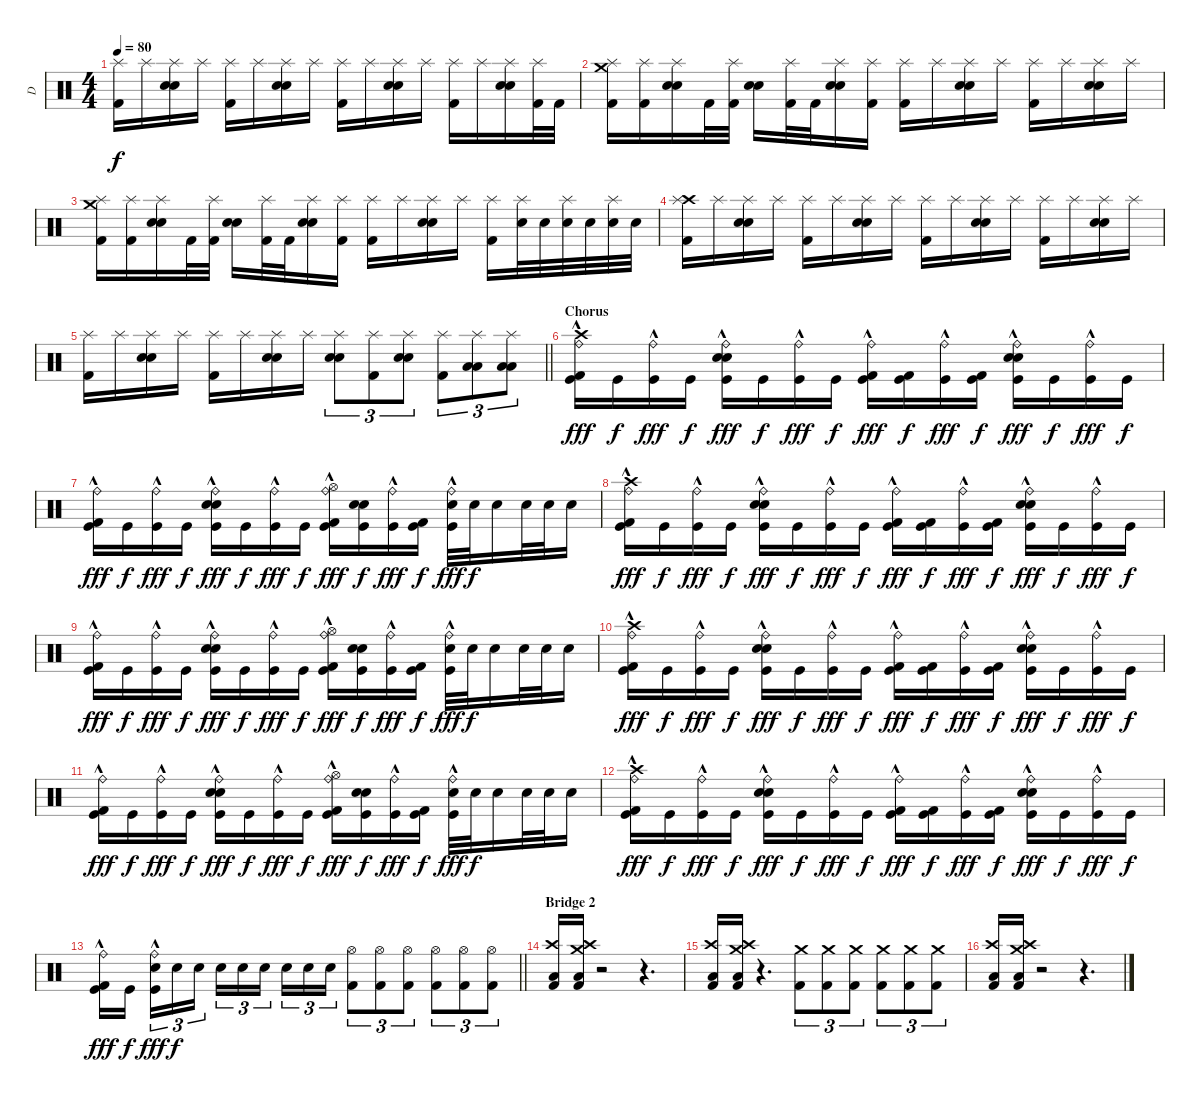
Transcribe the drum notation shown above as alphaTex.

\track ("D" "D") {instrument percussion}
\staff {score}
\articulation defaults
\ts (4 4)
\tempo 80
\clef neutral
\ks c
("Kick (hit) 2" "Splash (hit)").16{dy f} "Splash (hit)".16 ("Electric Snare (hit)" "Electric Snare (hit)" "Splash (hit)").16 "Splash (hit)".16 ("Kick (hit) 2" "Splash (hit)").16 "Splash (hit)".16 ("Electric Snare (hit)" "Electric Snare (hit)" "Splash (hit)").16 "Splash (hit)".16 ("Kick (hit) 2" "Splash (hit)").16 "Splash (hit)".16 ("Electric Snare (hit)" "Electric Snare (hit)" "Splash (hit)").16 "Splash (hit)".16 ("Kick (hit) 2" "Splash (hit)").16 "Splash (hit)".16 ("Electric Snare (hit)" "Electric Snare (hit)" "Splash (hit)").16 ("Kick (hit) 2" "Splash (hit)").32 "Kick (hit) 2".32 |
("Crash medium (hit)" "Kick (hit) 2" "Splash (hit)").16 ("Kick (hit) 2" "Splash (hit)").16 ("Electric Snare (hit)" "Electric Snare (hit)" "Splash (hit)").16 "Kick (hit) 2".32 ("Kick (hit) 2" "Splash (hit)").32 ("Electric Snare (hit)" "Electric Snare (hit)").16 ("Kick (hit) 2" "Splash (hit)").32 "Kick (hit) 2".32 ("Electric Snare (hit)" "Electric Snare (hit)" "Splash (hit)").16 ("Kick (hit) 2" "Splash (hit)").16 ("Kick (hit) 2" "Splash (hit)").16 "Splash (hit)".16 ("Electric Snare (hit)" "Electric Snare (hit)" "Splash (hit)").16 "Splash (hit)".16 ("Kick (hit) 2" "Splash (hit)").16 "Splash (hit)".16 ("Electric Snare (hit)" "Electric Snare (hit)" "Splash (hit)").16 "Splash (hit)".16 |
("Crash medium (hit)" "Kick (hit) 2" "Splash (hit)").16 ("Kick (hit) 2" "Splash (hit)").16 ("Electric Snare (hit)" "Electric Snare (hit)" "Splash (hit)").16 "Kick (hit) 2".32 ("Kick (hit) 2" "Splash (hit)").32 ("Electric Snare (hit)" "Electric Snare (hit)").16 ("Kick (hit) 2" "Splash (hit)").32 "Kick (hit) 2".32 ("Electric Snare (hit)" "Electric Snare (hit)" "Splash (hit)").16 ("Kick (hit) 2" "Splash (hit)").16 ("Kick (hit) 2" "Splash (hit)").16 "Splash (hit)".16 ("Electric Snare (hit)" "Electric Snare (hit)" "Splash (hit)").16 "Splash (hit)".16 ("Kick (hit) 2" "Splash (hit)").16 ("Electric Snare (hit)" "Splash (hit)").32 "Electric Snare (hit)".32 ("Electric Snare (hit)" "Splash (hit)").32 "Electric Snare (hit)".32 ("Electric Snare (hit)" "Splash (hit)").32 "Electric Snare (hit)".32 |
("Crash high (hit)" "Kick (hit) 2" "Splash (hit)").16 "Splash (hit)".16 ("Electric Snare (hit)" "Electric Snare (hit)" "Splash (hit)").16 "Splash (hit)".16 ("Kick (hit) 2" "Splash (hit)").16 "Splash (hit)".16 ("Electric Snare (hit)" "Electric Snare (hit)" "Splash (hit)").16 "Splash (hit)".16 ("Kick (hit) 2" "Splash (hit)").16 "Splash (hit)".16 ("Electric Snare (hit)" "Electric Snare (hit)" "Splash (hit)").16 "Splash (hit)".16 ("Kick (hit) 2" "Splash (hit)").16 "Splash (hit)".16 ("Electric Snare (hit)" "Electric Snare (hit)" "Splash (hit)").16 "Splash (hit)".16 |
\barLineRight lightlight
("Kick (hit) 2" "Splash (hit)").16 "Splash (hit)".16 ("Electric Snare (hit)" "Electric Snare (hit)" "Splash (hit)").16 "Splash (hit)".16 ("Kick (hit) 2" "Splash (hit)").16 "Splash (hit)".16 ("Electric Snare (hit)" "Electric Snare (hit)" "Splash (hit)").16 "Splash (hit)".16 ("Electric Snare (hit)" "Electric Snare (hit)" "Splash (hit)").8{tu (3 2)} ("Kick (hit) 2" "Splash (hit)").8{tu (3 2)} ("Electric Snare (hit)" "Electric Snare (hit)" "Splash (hit)").8{tu (3 2)} ("Kick (hit) 2" "Splash (hit)").8{tu (3 2)} ("Low Tom (hit)" "Low Floor Tom (hit)" "Splash (hit)").8{tu (3 2)} ("Low Tom (hit)" "Low Floor Tom (hit)" "Splash (hit)").8{tu (3 2)} |
\section ("" "Chorus")
("Crash high (hit)" "Kick (hit) 2" "Kick (hit)" "Ride (bell)"{hac}).16{dy fff} "Kick (hit)".16{dy f} ("Kick (hit)" "Ride (bell)"{hac}).16{dy fff} "Kick (hit)".16{dy f} ("Electric Snare (hit)" "Electric Snare (hit)" "Kick (hit)" "Ride (bell)"{hac}).16{dy fff} "Kick (hit)".16{dy f} ("Kick (hit)" "Ride (bell)"{hac}).16{dy fff} "Kick (hit)".16{dy f} ("Kick (hit) 2" "Kick (hit)" "Ride (bell)"{hac}).16{dy fff} ("Kick (hit) 2" "Kick (hit)").16{dy f} ("Kick (hit)" "Ride (bell)"{hac}).16{dy fff} ("Kick (hit) 2" "Kick (hit)").16{dy f} ("Electric Snare (hit)" "Electric Snare (hit)" "Kick (hit)" "Ride (bell)"{hac}).16{dy fff} "Kick (hit)".16{dy f} ("Kick (hit)" "Ride (bell)"{hac}).16{dy fff} "Kick (hit)".16{dy f} |
("Kick (hit) 2" "Kick (hit)" "Ride (bell)"{hac}).16{dy fff} "Kick (hit)".16{dy f} ("Kick (hit)" "Ride (bell)"{hac}).16{dy fff} "Kick (hit)".16{dy f} ("Electric Snare (hit)" "Electric Snare (hit)" "Kick (hit)" "Ride (bell)"{hac}).16{dy fff} "Kick (hit)".16{dy f} ("Kick (hit)" "Ride (bell)"{hac}).16{dy fff} "Kick (hit)".16{dy f} ("Hi-Hat (open)" "Kick (hit) 2" "Kick (hit)" "Ride (bell)"{hac}).16{dy fff} ("Electric Snare (hit)" "Electric Snare (hit)" "Kick (hit)").16{dy f} ("Kick (hit)" "Ride (bell)"{hac}).16{dy fff} ("Kick (hit) 2" "Kick (hit)").16{dy f} ("Electric Snare (hit)" "Kick (hit)" "Ride (bell)"{hac}).32{dy fff} "Electric Snare (hit)".32{dy f} "Electric Snare (hit)".16 "Electric Snare (hit)".32 "Electric Snare (hit)".32 "Electric Snare (hit)".16 |
("Crash high (hit)" "Kick (hit) 2" "Kick (hit)" "Ride (bell)"{hac}).16{dy fff} "Kick (hit)".16{dy f} ("Kick (hit)" "Ride (bell)"{hac}).16{dy fff} "Kick (hit)".16{dy f} ("Electric Snare (hit)" "Electric Snare (hit)" "Kick (hit)" "Ride (bell)"{hac}).16{dy fff} "Kick (hit)".16{dy f} ("Kick (hit)" "Ride (bell)"{hac}).16{dy fff} "Kick (hit)".16{dy f} ("Kick (hit) 2" "Kick (hit)" "Ride (bell)"{hac}).16{dy fff} ("Kick (hit) 2" "Kick (hit)").16{dy f} ("Kick (hit)" "Ride (bell)"{hac}).16{dy fff} ("Kick (hit) 2" "Kick (hit)").16{dy f} ("Electric Snare (hit)" "Electric Snare (hit)" "Kick (hit)" "Ride (bell)"{hac}).16{dy fff} "Kick (hit)".16{dy f} ("Kick (hit)" "Ride (bell)"{hac}).16{dy fff} "Kick (hit)".16{dy f} |
("Kick (hit) 2" "Kick (hit)" "Ride (bell)"{hac}).16{dy fff} "Kick (hit)".16{dy f} ("Kick (hit)" "Ride (bell)"{hac}).16{dy fff} "Kick (hit)".16{dy f} ("Electric Snare (hit)" "Electric Snare (hit)" "Kick (hit)" "Ride (bell)"{hac}).16{dy fff} "Kick (hit)".16{dy f} ("Kick (hit)" "Ride (bell)"{hac}).16{dy fff} "Kick (hit)".16{dy f} ("Hi-Hat (open)" "Kick (hit) 2" "Kick (hit)" "Ride (bell)"{hac}).16{dy fff} ("Electric Snare (hit)" "Electric Snare (hit)" "Kick (hit)").16{dy f} ("Kick (hit)" "Ride (bell)"{hac}).16{dy fff} ("Kick (hit) 2" "Kick (hit)").16{dy f} ("Electric Snare (hit)" "Kick (hit)" "Ride (bell)"{hac}).32{dy fff} "Electric Snare (hit)".32{dy f} "Electric Snare (hit)".16 "Electric Snare (hit)".32 "Electric Snare (hit)".32 "Electric Snare (hit)".16 |
("Crash high (hit)" "Kick (hit) 2" "Kick (hit)" "Ride (bell)"{hac}).16{dy fff} "Kick (hit)".16{dy f} ("Kick (hit)" "Ride (bell)"{hac}).16{dy fff} "Kick (hit)".16{dy f} ("Electric Snare (hit)" "Electric Snare (hit)" "Kick (hit)" "Ride (bell)"{hac}).16{dy fff} "Kick (hit)".16{dy f} ("Kick (hit)" "Ride (bell)"{hac}).16{dy fff} "Kick (hit)".16{dy f} ("Kick (hit) 2" "Kick (hit)" "Ride (bell)"{hac}).16{dy fff} ("Kick (hit) 2" "Kick (hit)").16{dy f} ("Kick (hit)" "Ride (bell)"{hac}).16{dy fff} ("Kick (hit) 2" "Kick (hit)").16{dy f} ("Electric Snare (hit)" "Electric Snare (hit)" "Kick (hit)" "Ride (bell)"{hac}).16{dy fff} "Kick (hit)".16{dy f} ("Kick (hit)" "Ride (bell)"{hac}).16{dy fff} "Kick (hit)".16{dy f} |
("Kick (hit) 2" "Kick (hit)" "Ride (bell)"{hac}).16{dy fff} "Kick (hit)".16{dy f} ("Kick (hit)" "Ride (bell)"{hac}).16{dy fff} "Kick (hit)".16{dy f} ("Electric Snare (hit)" "Electric Snare (hit)" "Kick (hit)" "Ride (bell)"{hac}).16{dy fff} "Kick (hit)".16{dy f} ("Kick (hit)" "Ride (bell)"{hac}).16{dy fff} "Kick (hit)".16{dy f} ("Hi-Hat (open)" "Kick (hit) 2" "Kick (hit)" "Ride (bell)"{hac}).16{dy fff} ("Electric Snare (hit)" "Electric Snare (hit)" "Kick (hit)").16{dy f} ("Kick (hit)" "Ride (bell)"{hac}).16{dy fff} ("Kick (hit) 2" "Kick (hit)").16{dy f} ("Electric Snare (hit)" "Kick (hit)" "Ride (bell)"{hac}).32{dy fff} "Electric Snare (hit)".32{dy f} "Electric Snare (hit)".16 "Electric Snare (hit)".32 "Electric Snare (hit)".32 "Electric Snare (hit)".16 |
("Crash high (hit)" "Kick (hit) 2" "Kick (hit)" "Ride (bell)"{hac}).16{dy fff} "Kick (hit)".16{dy f} ("Kick (hit)" "Ride (bell)"{hac}).16{dy fff} "Kick (hit)".16{dy f} ("Electric Snare (hit)" "Electric Snare (hit)" "Kick (hit)" "Ride (bell)"{hac}).16{dy fff} "Kick (hit)".16{dy f} ("Kick (hit)" "Ride (bell)"{hac}).16{dy fff} "Kick (hit)".16{dy f} ("Kick (hit) 2" "Kick (hit)" "Ride (bell)"{hac}).16{dy fff} ("Kick (hit) 2" "Kick (hit)").16{dy f} ("Kick (hit)" "Ride (bell)"{hac}).16{dy fff} ("Kick (hit) 2" "Kick (hit)").16{dy f} ("Electric Snare (hit)" "Electric Snare (hit)" "Kick (hit)" "Ride (bell)"{hac}).16{dy fff} "Kick (hit)".16{dy f} ("Kick (hit)" "Ride (bell)"{hac}).16{dy fff} "Kick (hit)".16{dy f} |
\barLineRight lightlight
("Kick (hit) 2" "Kick (hit)" "Ride (bell)"{hac}).16{dy fff} "Kick (hit)".16{dy f beam splitsecondary} ("Electric Snare (hit)" "Kick (hit)" "Ride (bell)"{hac}).16{tu (3 2) dy fff} "Electric Snare (hit)".16{tu (3 2) dy f} "Electric Snare (hit)".16{tu (3 2)} "Electric Snare (hit)".16{tu (3 2)} "Electric Snare (hit)".16{tu (3 2)} "Electric Snare (hit)".16{tu (3 2) beam splitsecondary} "Electric Snare (hit)".16{tu (3 2)} "Electric Snare (hit)".16{tu (3 2)} "Electric Snare (hit)".16{tu (3 2)} ("Kick (hit) 2" "Hi-Hat (open)").8{tu (3 2)} ("Kick (hit) 2" "Hi-Hat (open)").8{tu (3 2)} ("Kick (hit) 2" "Hi-Hat (open)").8{tu (3 2)} ("Kick (hit) 2" "Hi-Hat (open)").8{tu (3 2)} ("Kick (hit) 2" "Hi-Hat (open)").8{tu (3 2)} ("Kick (hit) 2" "Hi-Hat (open)").8{tu (3 2)} |
\section ("" "Bridge 2")
("Crash high (hit)" "Low Tom (hit)" "Kick (hit) 2").16 ("Crash high (hit)" "Crash medium (hit)" "Low Tom (hit)" "Kick (hit) 2").16 r.2 r.4{d} |
("Crash high (hit)" "Low Tom (hit)" "Kick (hit) 2").16 ("Crash high (hit)" "Crash medium (hit)" "Low Tom (hit)" "Kick (hit) 2").16 r.4{d} ("Crash medium (hit)" "Kick (hit) 2").8{tu (3 2)} ("Crash medium (hit)" "Kick (hit) 2").8{tu (3 2)} ("Crash medium (hit)" "Kick (hit) 2").8{tu (3 2)} ("Crash medium (hit)" "Kick (hit) 2").8{tu (3 2)} ("Crash medium (hit)" "Kick (hit) 2").8{tu (3 2)} ("Crash medium (hit)" "Kick (hit) 2").8{tu (3 2)} |
("Crash high (hit)" "Low Tom (hit)" "Kick (hit) 2").16 ("Crash high (hit)" "Crash medium (hit)" "Low Tom (hit)" "Kick (hit) 2").16 r.2 r.4{d}
